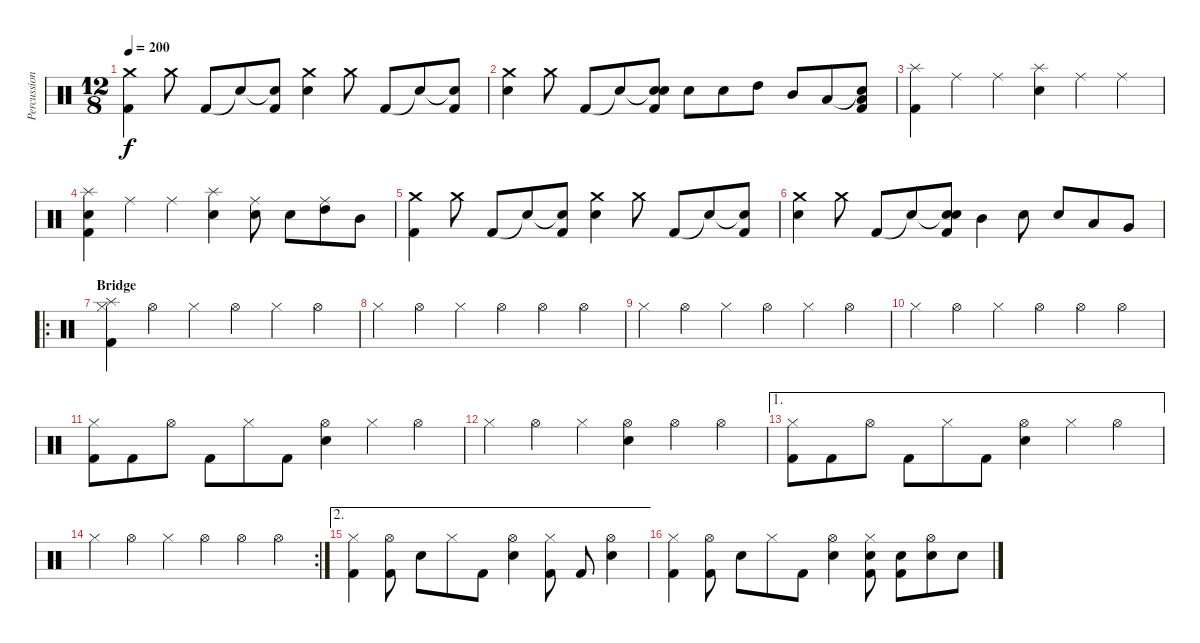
\track ("Percussion" "Percussion") {instrument percussion}
\staff {score}
\articulation defaults
\ts (12 8)
\tempo 200
\clef neutral
\ks c
("Crash medium (hit)" "Kick (hit) 2").4{dy f} "Crash medium (hit)".8 "Kick (hit) 2".8 "Snare (hit)"{t}.8 ("Snare (hit)"{t} "Kick (hit) 2").8 ("Crash medium (hit)" "Electric Snare (hit)").4 "Crash medium (hit)".8 "Kick (hit) 2".8 "Snare (hit)"{t}.8 ("Snare (hit)"{t} "Kick (hit) 2").8 |
("Crash medium (hit)" "Electric Snare (hit)").4 "Crash medium (hit)".8 "Kick (hit) 2".8 "Snare (hit)"{t}.8 ("Snare (hit)"{t} "Electric Snare (hit)" "Kick (hit) 2").8 "Electric Snare (hit)".8 "Electric Snare (hit)".8 "High Tom (hit)".8 "Mid Tom (hit)".8 "Low Tom (hit)".8 ("Snare (hit)"{t} "Low Tom (hit)" "Kick (hit) 2").8 |
("Splash (hit)" "Kick (hit) 2").4 "Ride (middle)".4 "Ride (middle)".4 ("Splash (hit)" "Electric Snare (hit)").4 "Ride (middle)".4 "Ride (middle)".4 |
("Splash (hit)" "Electric Snare (hit)" "Kick (hit) 2").4 "Ride (middle)".4 "Ride (middle)".4 ("Splash (hit)" "Electric Snare (hit)").4 ("Ride (middle)" "Electric Snare (hit)").8 "Electric Snare (hit)".8 ("Ride (middle)" "High Tom (hit)").8 "Mid Tom (hit)".8 |
("Crash medium (hit)" "Kick (hit) 2").4 "Crash medium (hit)".8 "Kick (hit) 2".8 "Snare (hit)"{t}.8 ("Snare (hit)"{t} "Kick (hit) 2").8 ("Crash medium (hit)" "Electric Snare (hit)").4 "Crash medium (hit)".8 "Kick (hit) 2".8 "Snare (hit)"{t}.8 ("Snare (hit)"{t} "Kick (hit) 2").8 |
("Crash medium (hit)" "Electric Snare (hit)").4 "Crash medium (hit)".8 "Kick (hit) 2".8 "Snare (hit)"{t}.8 ("Snare (hit)"{t} "Electric Snare (hit)" "Kick (hit) 2").8 "Mid Tom (hit)".4 "Electric Snare (hit)".8 "Electric Snare (hit)".8 "Low Tom (hit)".8 "Very Low Tom (hit)".8 |
\ro
\section ("" "Bridge")
("Splash (hit)" "Hi-Hat (closed)" "Kick (hit) 2").4 "Hi-Hat (open)".4 "Hi-Hat (closed)".4 "Hi-Hat (open)".4 "Hi-Hat (closed)".4 "Hi-Hat (open)".4 |
"Hi-Hat (closed)".4 "Hi-Hat (open)".4 "Hi-Hat (closed)".4 "Hi-Hat (open)".4 "Hi-Hat (open)".4 "Hi-Hat (open)".4 |
"Hi-Hat (closed)".4 "Hi-Hat (open)".4 "Hi-Hat (closed)".4 "Hi-Hat (open)".4 "Hi-Hat (closed)".4 "Hi-Hat (open)".4 |
"Hi-Hat (closed)".4 "Hi-Hat (open)".4 "Hi-Hat (closed)".4 "Hi-Hat (open)".4 "Hi-Hat (open)".4 "Hi-Hat (open)".4 |
("Hi-Hat (closed)" "Kick (hit) 2").8 "Kick (hit) 2".8 "Hi-Hat (open)".8 "Kick (hit) 2".8 "Hi-Hat (closed)".8 "Kick (hit) 2".8 ("Hi-Hat (open)" "Electric Snare (hit)").4 "Hi-Hat (closed)".4 "Hi-Hat (open)".4 |
"Hi-Hat (closed)".4 "Hi-Hat (open)".4 "Hi-Hat (closed)".4 ("Hi-Hat (open)" "Electric Snare (hit)").4 "Hi-Hat (open)".4 "Hi-Hat (open)".4 |
\ae 1
("Hi-Hat (closed)" "Kick (hit) 2").8 "Kick (hit) 2".8 "Hi-Hat (open)".8 "Kick (hit) 2".8 "Hi-Hat (closed)".8 "Kick (hit) 2".8 ("Hi-Hat (open)" "Electric Snare (hit)").4 "Hi-Hat (closed)".4 "Hi-Hat (open)".4 |
\rc 2 "Hi-Hat (closed)".4 "Hi-Hat (open)".4 "Hi-Hat (closed)".4 "Hi-Hat (open)".4 "Hi-Hat (open)".4 "Hi-Hat (open)".4
|
\ae 2
("Hi-Hat (closed)" "Kick (hit) 2").4 ("Hi-Hat (open)" "Kick (hit) 2").8 "Electric Snare (hit)".8 "Hi-Hat (closed)".8 "Kick (hit) 2".8 ("Hi-Hat (open)" "Electric Snare (hit)").4 ("Hi-Hat (closed)" "Kick (hit) 2").8 "Kick (hit) 2".8 ("Hi-Hat (open)" "Electric Snare (hit)").4 |
("Hi-Hat (closed)" "Kick (hit) 2").4 ("Hi-Hat (open)" "Kick (hit) 2").8 "Electric Snare (hit)".8 "Hi-Hat (closed)".8 "Kick (hit) 2".8 ("Hi-Hat (open)" "Electric Snare (hit)").4 ("Hi-Hat (closed)" "Electric Snare (hit)" "Kick (hit) 2").8 ("Electric Snare (hit)" "Kick (hit) 2").8 ("Hi-Hat (open)" "Electric Snare (hit)").8 "Electric Snare (hit)".8
